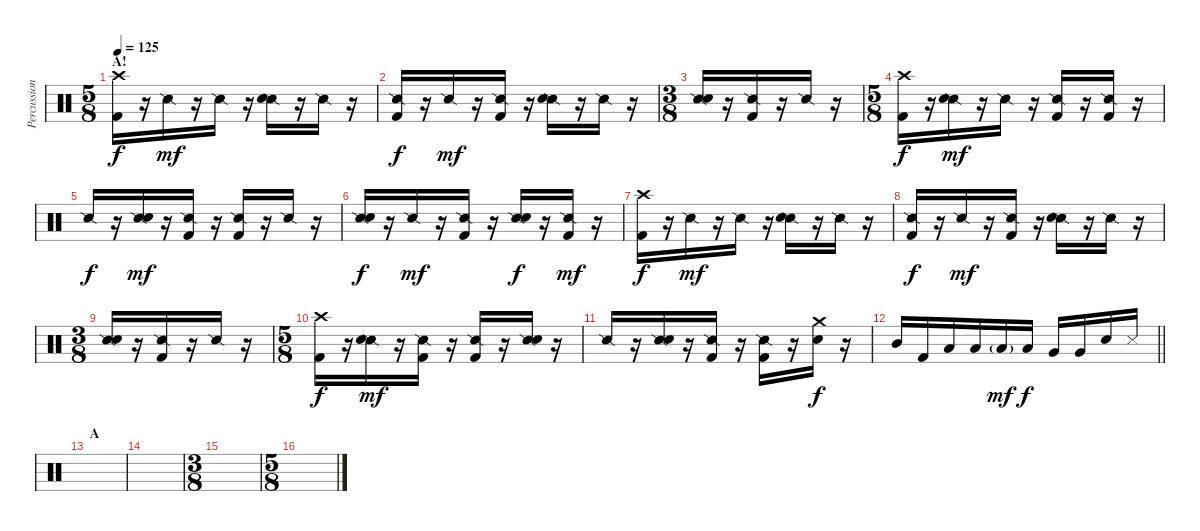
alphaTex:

\track ("Percussion" "Percussion") {instrument percussion}
\staff {score}
\articulation defaults
\ts (5 8)
\section ("" "A!")
\tempo 125
\clef neutral
\ks c
("Crash high (hit)" "Kick (hit) 2").16{dy f} r.16 "Snare (side stick) 2".16{dy mf} r.16 "Snare (side stick) 2".16 r.16 ("Snare (side stick) 2" "Snare (hit) 2").16 r.16 "Snare (side stick) 2".16 r.16 |
("Snare (side stick) 2" "Kick (hit) 2").16{dy f} r.16 "Snare (side stick) 2".16{dy mf} r.16 ("Snare (side stick) 2" "Kick (hit) 2").16 r.16 ("Snare (side stick) 2" "Snare (hit) 2").16 r.16 "Snare (side stick) 2".16 r.16 |
\ts (3 8)
("Snare (side stick) 2" "Snare (hit) 2").16 r.16 ("Snare (side stick) 2" "Kick (hit) 2").16 r.16 "Snare (side stick) 2".16 r.16 |
\ts (5 8)
("Crash high (hit)" "Kick (hit) 2").16{dy f} r.16 ("Snare (side stick) 2" "Snare (hit) 2").16{dy mf} r.16 "Snare (side stick) 2".16 r.16 ("Snare (side stick) 2" "Kick (hit) 2").16 r.16 ("Snare (side stick) 2" "Kick (hit) 2").16 r.16 |
"Snare (side stick) 2".16{dy f} r.16 ("Snare (side stick) 2" "Snare (hit) 2").16{dy mf} r.16 ("Snare (side stick) 2" "Kick (hit) 2").16 r.16 ("Snare (side stick) 2" "Kick (hit) 2").16 r.16 "Snare (side stick) 2".16 r.16 |
("Snare (side stick) 2" "Snare (hit) 2").16{dy f} r.16 "Snare (side stick) 2".16{dy mf} r.16 ("Snare (side stick) 2" "Kick (hit) 2").16 r.16 ("Snare (side stick) 2" "Snare (hit) 2").16{dy f} r.16 ("Snare (side stick) 2" "Kick (hit) 2").16{dy mf} r.16 |
("Crash high (hit)" "Kick (hit) 2").16{dy f} r.16 "Snare (side stick) 2".16{dy mf} r.16 "Snare (side stick) 2".16 r.16 ("Snare (side stick) 2" "Snare (hit) 2").16 r.16 "Snare (side stick) 2".16 r.16 |
("Snare (side stick) 2" "Kick (hit) 2").16{dy f} r.16 "Snare (side stick) 2".16{dy mf} r.16 ("Snare (side stick) 2" "Kick (hit) 2").16 r.16 ("Snare (side stick) 2" "Snare (hit) 2").16 r.16 "Snare (side stick) 2".16 r.16 |
\ts (3 8)
("Snare (side stick) 2" "Snare (hit) 2").16 r.16 ("Snare (side stick) 2" "Kick (hit) 2").16 r.16 "Snare (side stick) 2".16 r.16 |
\ts (5 8)
("Crash high (hit)" "Kick (hit) 2").16{dy f} r.16 ("Snare (side stick) 2" "Snare (hit) 2").16{dy mf} r.16 ("Snare (side stick) 2" "Kick (hit) 2").16 r.16 ("Snare (side stick) 2" "Kick (hit) 2").16 r.16 ("Snare (side stick) 2" "Snare (hit) 2").16 r.16 |
"Snare (side stick) 2".16 r.16 ("Snare (side stick) 2" "Snare (hit) 2").16 r.16 ("Snare (side stick) 2" "Kick (hit) 2").16 r.16 ("Snare (side stick) 2" "Kick (hit) 2").16 r.16 ("Crash medium (hit)" "Snare (hit) 2").16{dy f} r.16 |
\barLineRight lightlight "Mid Tom (hit)".16 "Kick (hit) 2".16 "Low Tom (hit)".16 "Low Tom (hit)".16 "Low Tom (hit)"{g}.16{dy mf} "Low Tom (hit)".16{dy f} "Very Low Tom (hit)".16 "Very Low Tom (hit)".16 "Snare (hit) 2".16 "Metronome (hit)".16
|
\section ("" "A")
|
|
\ts (3 8)
|
\ts (5 8)
